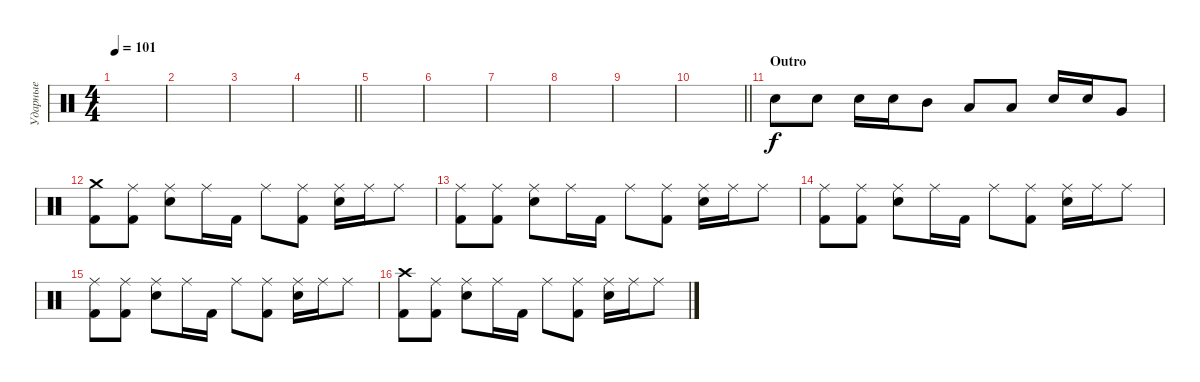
\track ("Ударные" "Ударные") {instrument percussion}
\staff {score}
\articulation defaults
\ts (4 4)
\tempo 101
\clef neutral
\ks c
|
|
|
\barLineRight lightlight
|
|
|
|
|
|
\barLineRight lightlight
|
\section ("" "Outro")
"Snare (hit) 2".8 "Snare (hit) 2".8 "Snare (hit) 2".16 "Snare (hit) 2".16 "Mid Tom (hit)".8 "Low Tom (hit)".8 "Low Tom (hit)".8 "Snare (hit) 2".16 "Snare (hit) 2".16 "Very Low Tom (hit)".8 |
("Crash medium (hit)" "Kick (hit) 2").8 ("Ride (middle)" "Kick (hit) 2").8 ("Ride (middle)" "Electric Snare (hit)").8 "Ride (middle)".16 "Kick (hit) 2".16 "Ride (middle)".8 ("Ride (middle)" "Kick (hit) 2").8 ("Ride (middle)" "Electric Snare (hit)").16 "Ride (middle)".16 "Ride (middle)".8 |
("Ride (middle)" "Kick (hit) 2").8 ("Ride (middle)" "Kick (hit) 2").8 ("Ride (middle)" "Electric Snare (hit)").8 "Ride (middle)".16 "Kick (hit) 2".16 "Ride (middle)".8 ("Ride (middle)" "Kick (hit) 2").8 ("Ride (middle)" "Electric Snare (hit)").16 "Ride (middle)".16 "Ride (middle)".8 |
("Ride (middle)" "Kick (hit) 2").8 ("Ride (middle)" "Kick (hit) 2").8 ("Ride (middle)" "Electric Snare (hit)").8 "Ride (middle)".16 "Kick (hit) 2".16 "Ride (middle)".8 ("Ride (middle)" "Kick (hit) 2").8 ("Ride (middle)" "Electric Snare (hit)").16 "Ride (middle)".16 "Ride (middle)".8 |
("Ride (middle)" "Kick (hit) 2").8 ("Ride (middle)" "Kick (hit) 2").8 ("Ride (middle)" "Electric Snare (hit)").8 "Ride (middle)".16 "Kick (hit) 2".16 "Ride (middle)".8 ("Ride (middle)" "Kick (hit) 2").8 ("Ride (middle)" "Electric Snare (hit)").16 "Ride (middle)".16 "Ride (middle)".8 |
("Crash high (hit)" "Kick (hit) 2").8 ("Ride (middle)" "Kick (hit) 2").8 ("Ride (middle)" "Electric Snare (hit)").8 "Ride (middle)".16 "Kick (hit) 2".16 "Ride (middle)".8 ("Ride (middle)" "Kick (hit) 2").8 ("Ride (middle)" "Electric Snare (hit)").16 "Ride (middle)".16 "Ride (middle)".8
